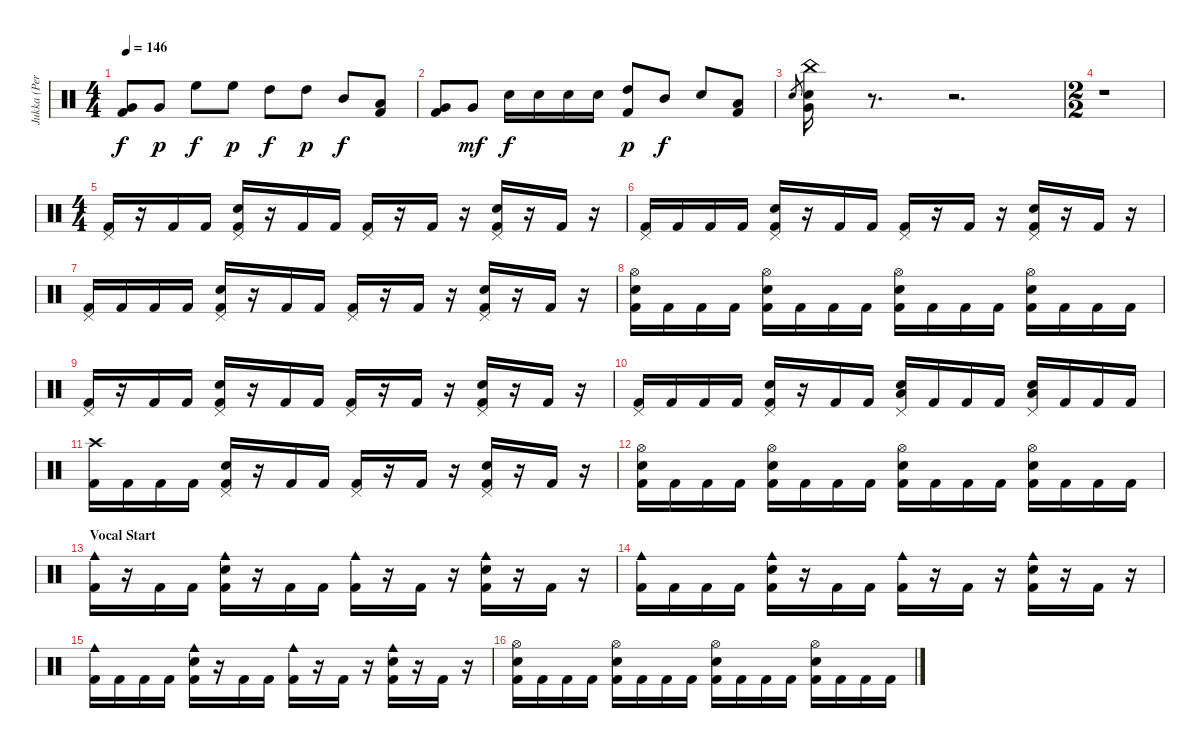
\track ("Jukka (Percussion)" "Jukka (Per") {instrument percussion}
\staff {score}
\articulation defaults
\ts (4 4)
\tempo 146
\clef neutral
\ks c
("Very Low Tom (hit)" "Kick (hit) 2").8{dy f} "Very Low Tom (hit)".8{dy p} "High Floor Tom (hit)".8{dy f} "High Floor Tom (hit)".8{dy p} "High Tom (hit)".8{dy f} "High Tom (hit)".8{dy p} "Mid Tom (hit)".8{dy f} ("Low Tom (hit)" "Kick (hit) 2").8 |
("Very Low Tom (hit)" "Kick (hit) 2").8 "Very Low Tom (hit)".8{dy mf} "Snare (hit) 2".16{dy f} "Snare (hit) 2".16 "Snare (hit) 2".16 "Snare (hit) 2".16 ("High Tom (hit)" "Kick (hit) 2").8{dy p} "Mid Tom (hit)".8{dy f} "Snare (hit) 2".8 ("Low Tom (hit)" "Kick (hit) 2").8 |
"Snare (hit) 2".8{gr} ("China (hit)" "Snare (hit) 2" "Very Low Tom (hit)").16 r.8{d} r.2{d} |
\ts (2 2)
r.1 |
\ts (4 4)
("Pedal Hi-Hat (hit)" "Kick (hit) 2").16 r.16 "Kick (hit) 2".16 "Kick (hit) 2".16 ("Pedal Hi-Hat (hit)" "Snare (hit) 2" "Kick (hit) 2").16 r.16 "Kick (hit) 2".16 "Kick (hit) 2".16 ("Pedal Hi-Hat (hit)" "Kick (hit) 2").16 r.16 "Kick (hit) 2".16 r.16 ("Pedal Hi-Hat (hit)" "Snare (hit) 2" "Kick (hit) 2").16 r.16 "Kick (hit) 2".16 r.16 |
("Pedal Hi-Hat (hit)" "Kick (hit) 2").16 "Kick (hit) 2".16 "Kick (hit) 2".16 "Kick (hit) 2".16 ("Pedal Hi-Hat (hit)" "Snare (hit) 2" "Kick (hit) 2").16 r.16 "Kick (hit) 2".16 "Kick (hit) 2".16 ("Pedal Hi-Hat (hit)" "Kick (hit) 2").16 r.16 "Kick (hit) 2".16 r.16 ("Pedal Hi-Hat (hit)" "Snare (hit) 2" "Kick (hit) 2").16 r.16 "Kick (hit) 2".16 r.16 |
("Pedal Hi-Hat (hit)" "Kick (hit) 2").16 "Kick (hit) 2".16 "Kick (hit) 2".16 "Kick (hit) 2".16 ("Pedal Hi-Hat (hit)" "Snare (hit) 2" "Kick (hit) 2").16 r.16 "Kick (hit) 2".16 "Kick (hit) 2".16 ("Pedal Hi-Hat (hit)" "Kick (hit) 2").16 r.16 "Kick (hit) 2".16 r.16 ("Pedal Hi-Hat (hit)" "Snare (hit) 2" "Kick (hit) 2").16 r.16 "Kick (hit) 2".16 r.16 |
("Hi-Hat (open)" "Snare (hit) 2" "Kick (hit) 2").16 "Kick (hit) 2".16 "Kick (hit) 2".16 "Kick (hit) 2".16 ("Hi-Hat (open)" "Snare (hit) 2" "Kick (hit) 2").16 "Kick (hit) 2".16 "Kick (hit) 2".16 "Kick (hit) 2".16 ("Hi-Hat (open)" "Snare (hit) 2" "Kick (hit) 2").16 "Kick (hit) 2".16 "Kick (hit) 2".16 "Kick (hit) 2".16 ("Hi-Hat (open)" "Snare (hit) 2" "Kick (hit) 2").16 "Kick (hit) 2".16 "Kick (hit) 2".16 "Kick (hit) 2".16 |
("Pedal Hi-Hat (hit)" "Kick (hit) 2").16 r.16 "Kick (hit) 2".16 "Kick (hit) 2".16 ("Pedal Hi-Hat (hit)" "Snare (hit) 2" "Kick (hit) 2").16 r.16 "Kick (hit) 2".16 "Kick (hit) 2".16 ("Pedal Hi-Hat (hit)" "Kick (hit) 2").16 r.16 "Kick (hit) 2".16 r.16 ("Pedal Hi-Hat (hit)" "Snare (hit) 2" "Kick (hit) 2").16 r.16 "Kick (hit) 2".16 r.16 |
("Pedal Hi-Hat (hit)" "Kick (hit) 2").16 "Kick (hit) 2".16 "Kick (hit) 2".16 "Kick (hit) 2".16 ("Pedal Hi-Hat (hit)" "Snare (hit) 2" "Kick (hit) 2").16 r.16 "Kick (hit) 2".16 "Kick (hit) 2".16 ("Pedal Hi-Hat (hit)" "Snare (hit) 2" "Low Tom (hit)").16 "Kick (hit) 2".16 "Kick (hit) 2".16 "Kick (hit) 2".16 ("Pedal Hi-Hat (hit)" "Snare (hit) 2" "Low Tom (hit)").16 "Kick (hit) 2".16 "Kick (hit) 2".16 "Kick (hit) 2".16 |
("Crash high (hit)" "Kick (hit) 2").16 "Kick (hit) 2".16 "Kick (hit) 2".16 "Kick (hit) 2".16 ("Pedal Hi-Hat (hit)" "Snare (hit) 2" "Kick (hit) 2").16 r.16 "Kick (hit) 2".16 "Kick (hit) 2".16 ("Pedal Hi-Hat (hit)" "Kick (hit) 2").16 r.16 "Kick (hit) 2".16 r.16 ("Pedal Hi-Hat (hit)" "Snare (hit) 2" "Kick (hit) 2").16 r.16 "Kick (hit) 2".16 r.16 |
("Hi-Hat (open)" "Snare (hit) 2" "Kick (hit) 2").16 "Kick (hit) 2".16 "Kick (hit) 2".16 "Kick (hit) 2".16 ("Hi-Hat (open)" "Snare (hit) 2" "Kick (hit) 2").16 "Kick (hit) 2".16 "Kick (hit) 2".16 "Kick (hit) 2".16 ("Hi-Hat (open)" "Snare (hit) 2" "Kick (hit) 2").16 "Kick (hit) 2".16 "Kick (hit) 2".16 "Kick (hit) 2".16 ("Hi-Hat (open)" "Snare (hit) 2" "Kick (hit) 2").16 "Kick (hit) 2".16 "Kick (hit) 2".16 "Kick (hit) 2".16 |
\section ("" "Vocal Start")
("Cowbell medium (hit)" "Kick (hit) 2").16 r.16 "Kick (hit) 2".16 "Kick (hit) 2".16 ("Cowbell medium (hit)" "Snare (hit) 2" "Kick (hit) 2").16 r.16 "Kick (hit) 2".16 "Kick (hit) 2".16 ("Cowbell medium (hit)" "Kick (hit) 2").16 r.16 "Kick (hit) 2".16 r.16 ("Cowbell medium (hit)" "Snare (hit) 2" "Kick (hit) 2").16 r.16 "Kick (hit) 2".16 r.16 |
("Cowbell medium (hit)" "Kick (hit) 2").16 "Kick (hit) 2".16 "Kick (hit) 2".16 "Kick (hit) 2".16 ("Cowbell medium (hit)" "Snare (hit) 2" "Kick (hit) 2").16 r.16 "Kick (hit) 2".16 "Kick (hit) 2".16 ("Cowbell medium (hit)" "Kick (hit) 2").16 r.16 "Kick (hit) 2".16 r.16 ("Cowbell medium (hit)" "Snare (hit) 2" "Kick (hit) 2").16 r.16 "Kick (hit) 2".16 r.16 |
("Cowbell medium (hit)" "Kick (hit) 2").16 "Kick (hit) 2".16 "Kick (hit) 2".16 "Kick (hit) 2".16 ("Cowbell medium (hit)" "Snare (hit) 2" "Kick (hit) 2").16 r.16 "Kick (hit) 2".16 "Kick (hit) 2".16 ("Cowbell medium (hit)" "Kick (hit) 2").16 r.16 "Kick (hit) 2".16 r.16 ("Cowbell medium (hit)" "Snare (hit) 2" "Kick (hit) 2").16 r.16 "Kick (hit) 2".16 r.16 |
("Hi-Hat (open)" "Snare (hit) 2" "Kick (hit) 2").16 "Kick (hit) 2".16 "Kick (hit) 2".16 "Kick (hit) 2".16 ("Hi-Hat (open)" "Snare (hit) 2" "Kick (hit) 2").16 "Kick (hit) 2".16 "Kick (hit) 2".16 "Kick (hit) 2".16 ("Hi-Hat (open)" "Snare (hit) 2" "Kick (hit) 2").16 "Kick (hit) 2".16 "Kick (hit) 2".16 "Kick (hit) 2".16 ("Hi-Hat (open)" "Snare (hit) 2" "Kick (hit) 2").16 "Kick (hit) 2".16 "Kick (hit) 2".16 "Kick (hit) 2".16
